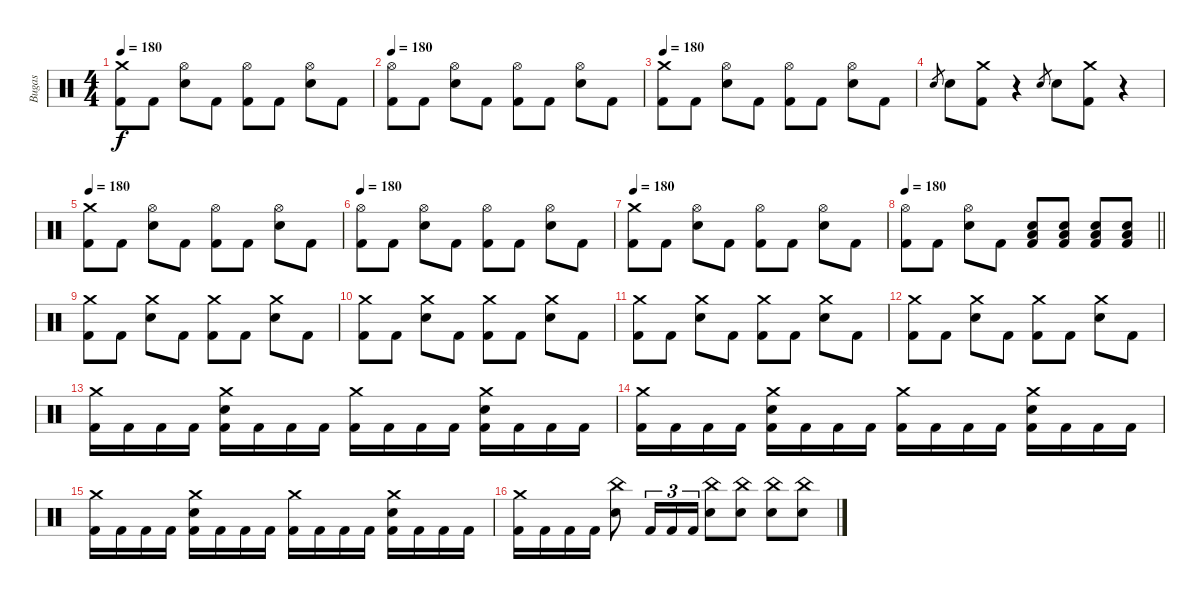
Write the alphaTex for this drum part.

\track ("Bugas" "Bugas") {instrument percussion}
\staff {score}
\articulation defaults
\ts (4 4)
\tempo 180
\clef neutral
\ks c
("Crash medium (hit)" "Kick (hit) 2").8{dy f} "Kick (hit) 2".8 ("Hi-Hat (open)" "Electric Snare (hit)").8 "Kick (hit) 2".8 ("Hi-Hat (open)" "Kick (hit) 2").8 "Kick (hit) 2".8 ("Hi-Hat (open)" "Electric Snare (hit)").8 "Kick (hit) 2".8 |
\tempo 180
("Hi-Hat (open)" "Kick (hit) 2").8 "Kick (hit) 2".8 ("Hi-Hat (open)" "Electric Snare (hit)").8 "Kick (hit) 2".8 ("Hi-Hat (open)" "Kick (hit) 2").8 "Kick (hit) 2".8 ("Hi-Hat (open)" "Electric Snare (hit)").8 "Kick (hit) 2".8 |
\tempo 180
("Crash medium (hit)" "Kick (hit) 2").8 "Kick (hit) 2".8 ("Hi-Hat (open)" "Electric Snare (hit)").8 "Kick (hit) 2".8 ("Hi-Hat (open)" "Kick (hit) 2").8 "Kick (hit) 2".8 ("Hi-Hat (open)" "Electric Snare (hit)").8 "Kick (hit) 2".8 |
"Electric Snare (hit)".8{gr} "Electric Snare (hit)".8 ("Crash medium (hit)" "Kick (hit) 2").8 r.4 "Electric Snare (hit)".8{gr} "Electric Snare (hit)".8 ("Crash medium (hit)" "Kick (hit) 2").8 r.4 |
\tempo 180
("Crash medium (hit)" "Kick (hit) 2").8 "Kick (hit) 2".8 ("Hi-Hat (open)" "Electric Snare (hit)").8 "Kick (hit) 2".8 ("Hi-Hat (open)" "Kick (hit) 2").8 "Kick (hit) 2".8 ("Hi-Hat (open)" "Electric Snare (hit)").8 "Kick (hit) 2".8 |
\tempo 180
("Hi-Hat (open)" "Kick (hit) 2").8 "Kick (hit) 2".8 ("Hi-Hat (open)" "Electric Snare (hit)").8 "Kick (hit) 2".8 ("Hi-Hat (open)" "Kick (hit) 2").8 "Kick (hit) 2".8 ("Hi-Hat (open)" "Electric Snare (hit)").8 "Kick (hit) 2".8 |
\tempo 180
("Crash medium (hit)" "Kick (hit) 2").8 "Kick (hit) 2".8 ("Hi-Hat (open)" "Electric Snare (hit)").8 "Kick (hit) 2".8 ("Hi-Hat (open)" "Kick (hit) 2").8 "Kick (hit) 2".8 ("Hi-Hat (open)" "Electric Snare (hit)").8 "Kick (hit) 2".8 |
\tempo 180
\barLineRight lightlight
("Hi-Hat (open)" "Kick (hit) 2").8 "Kick (hit) 2".8 ("Hi-Hat (open)" "Electric Snare (hit)").8 "Kick (hit) 2".8 ("Electric Snare (hit)" "Low Tom (hit)" "Kick (hit) 2").8 ("Electric Snare (hit)" "Low Tom (hit)" "Kick (hit) 2").8 ("Electric Snare (hit)" "Low Tom (hit)" "Kick (hit) 2").8 ("Electric Snare (hit)" "Low Tom (hit)" "Kick (hit) 2").8 |
("Crash medium (hit)" "Kick (hit) 2").8 "Kick (hit) 2".8 ("Crash medium (hit)" "Electric Snare (hit)").8 "Kick (hit) 2".8 ("Crash medium (hit)" "Kick (hit) 2").8 "Kick (hit) 2".8 ("Crash medium (hit)" "Electric Snare (hit)").8 "Kick (hit) 2".8 |
("Crash medium (hit)" "Kick (hit) 2").8 "Kick (hit) 2".8 ("Crash medium (hit)" "Electric Snare (hit)").8 "Kick (hit) 2".8 ("Crash medium (hit)" "Kick (hit) 2").8 "Kick (hit) 2".8 ("Crash medium (hit)" "Electric Snare (hit)").8 "Kick (hit) 2".8 |
("Crash medium (hit)" "Kick (hit) 2").8 "Kick (hit) 2".8 ("Crash medium (hit)" "Electric Snare (hit)").8 "Kick (hit) 2".8 ("Crash medium (hit)" "Kick (hit) 2").8 "Kick (hit) 2".8 ("Crash medium (hit)" "Electric Snare (hit)").8 "Kick (hit) 2".8 |
("Crash medium (hit)" "Kick (hit) 2").8 "Kick (hit) 2".8 ("Crash medium (hit)" "Electric Snare (hit)").8 "Kick (hit) 2".8 ("Crash medium (hit)" "Kick (hit) 2").8 "Kick (hit) 2".8 ("Crash medium (hit)" "Electric Snare (hit)").8 "Kick (hit) 2".8 |
("Crash medium (hit)" "Kick (hit) 2").16 "Kick (hit) 2".16 "Kick (hit) 2".16 "Kick (hit) 2".16 ("Crash medium (hit)" "Electric Snare (hit)" "Kick (hit) 2").16 "Kick (hit) 2".16 "Kick (hit) 2".16 "Kick (hit) 2".16 ("Crash medium (hit)" "Kick (hit) 2").16 "Kick (hit) 2".16 "Kick (hit) 2".16 "Kick (hit) 2".16 ("Crash medium (hit)" "Electric Snare (hit)" "Kick (hit) 2").16 "Kick (hit) 2".16 "Kick (hit) 2".16 "Kick (hit) 2".16 |
("Crash medium (hit)" "Kick (hit) 2").16 "Kick (hit) 2".16 "Kick (hit) 2".16 "Kick (hit) 2".16 ("Crash medium (hit)" "Electric Snare (hit)" "Kick (hit) 2").16 "Kick (hit) 2".16 "Kick (hit) 2".16 "Kick (hit) 2".16 ("Crash medium (hit)" "Kick (hit) 2").16 "Kick (hit) 2".16 "Kick (hit) 2".16 "Kick (hit) 2".16 ("Crash medium (hit)" "Electric Snare (hit)" "Kick (hit) 2").16 "Kick (hit) 2".16 "Kick (hit) 2".16 "Kick (hit) 2".16 |
("Crash medium (hit)" "Kick (hit) 2").16 "Kick (hit) 2".16 "Kick (hit) 2".16 "Kick (hit) 2".16 ("Crash medium (hit)" "Electric Snare (hit)" "Kick (hit) 2").16 "Kick (hit) 2".16 "Kick (hit) 2".16 "Kick (hit) 2".16 ("Crash medium (hit)" "Kick (hit) 2").16 "Kick (hit) 2".16 "Kick (hit) 2".16 "Kick (hit) 2".16 ("Crash medium (hit)" "Electric Snare (hit)" "Kick (hit) 2").16 "Kick (hit) 2".16 "Kick (hit) 2".16 "Kick (hit) 2".16 |
("Crash medium (hit)" "Kick (hit) 2").16 "Kick (hit) 2".16 "Kick (hit) 2".16 "Kick (hit) 2".16 ("China (hit)" "Electric Snare (hit)").8 "Kick (hit) 2".16{tu (3 2)} "Kick (hit) 2".16{tu (3 2)} "Kick (hit) 2".16{tu (3 2)} ("China (hit)" "Electric Snare (hit)").8 ("China (hit)" "Electric Snare (hit)").8 ("China (hit)" "Electric Snare (hit)").8 ("China (hit)" "Electric Snare (hit)").8
